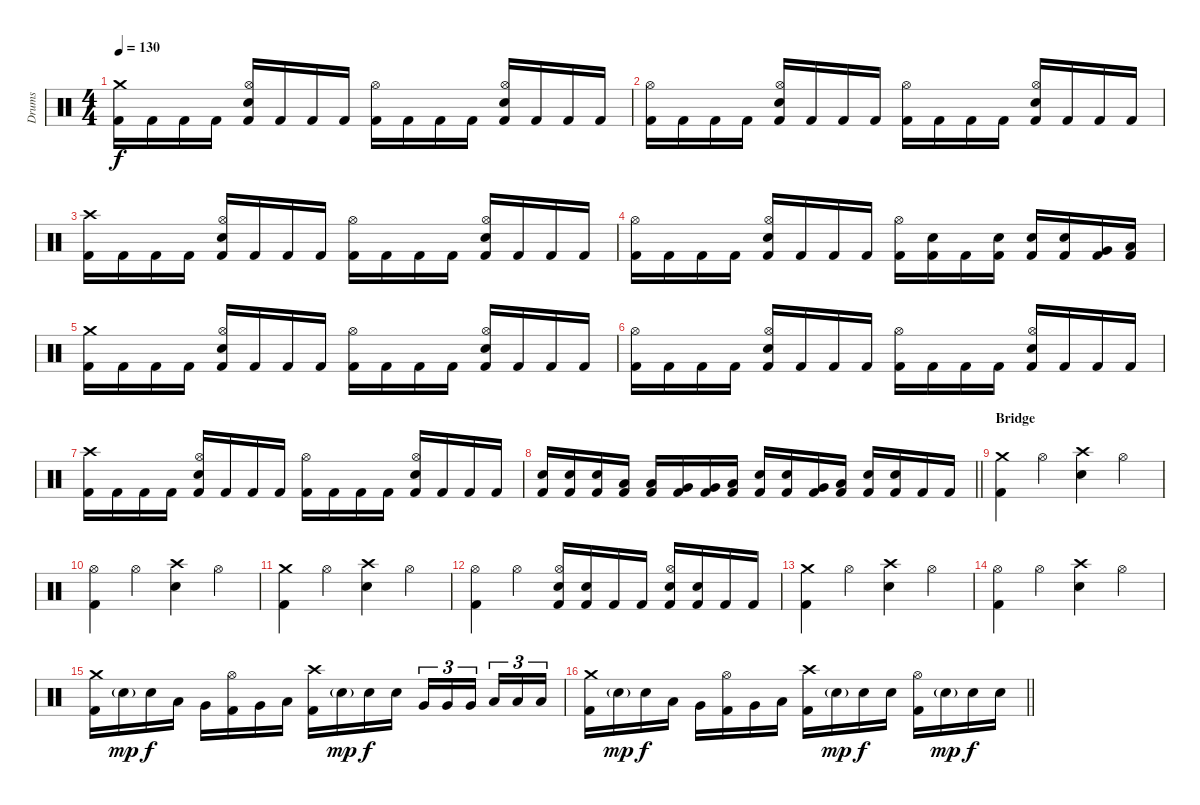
\track ("Drums" "Drums") {instrument percussion}
\staff {score}
\articulation defaults
\ts (4 4)
\tempo 130
\clef neutral
\ks c
("Crash medium (hit)" "Kick (hit) 2").16{dy f} "Kick (hit) 2".16 "Kick (hit) 2".16 "Kick (hit) 2".16 ("Hi-Hat (open)" "Electric Snare (hit)" "Kick (hit) 2").16 "Kick (hit) 2".16 "Kick (hit) 2".16 "Kick (hit) 2".16 ("Hi-Hat (open)" "Kick (hit) 2").16 "Kick (hit) 2".16 "Kick (hit) 2".16 "Kick (hit) 2".16 ("Hi-Hat (open)" "Electric Snare (hit)" "Kick (hit) 2").16 "Kick (hit) 2".16 "Kick (hit) 2".16 "Kick (hit) 2".16 |
("Hi-Hat (open)" "Kick (hit) 2").16 "Kick (hit) 2".16 "Kick (hit) 2".16 "Kick (hit) 2".16 ("Hi-Hat (open)" "Electric Snare (hit)" "Kick (hit) 2").16 "Kick (hit) 2".16 "Kick (hit) 2".16 "Kick (hit) 2".16 ("Hi-Hat (open)" "Kick (hit) 2").16 "Kick (hit) 2".16 "Kick (hit) 2".16 "Kick (hit) 2".16 ("Hi-Hat (open)" "Electric Snare (hit)" "Kick (hit) 2").16 "Kick (hit) 2".16 "Kick (hit) 2".16 "Kick (hit) 2".16 |
("Crash high (hit)" "Kick (hit) 2").16 "Kick (hit) 2".16 "Kick (hit) 2".16 "Kick (hit) 2".16 ("Hi-Hat (open)" "Electric Snare (hit)" "Kick (hit) 2").16 "Kick (hit) 2".16 "Kick (hit) 2".16 "Kick (hit) 2".16 ("Hi-Hat (open)" "Kick (hit) 2").16 "Kick (hit) 2".16 "Kick (hit) 2".16 "Kick (hit) 2".16 ("Hi-Hat (open)" "Electric Snare (hit)" "Kick (hit) 2").16 "Kick (hit) 2".16 "Kick (hit) 2".16 "Kick (hit) 2".16 |
("Hi-Hat (open)" "Kick (hit) 2").16 "Kick (hit) 2".16 "Kick (hit) 2".16 "Kick (hit) 2".16 ("Hi-Hat (open)" "Electric Snare (hit)" "Kick (hit) 2").16 "Kick (hit) 2".16 "Kick (hit) 2".16 "Kick (hit) 2".16 ("Hi-Hat (open)" "Kick (hit) 2").16 ("Electric Snare (hit)" "Kick (hit) 2").16 "Kick (hit) 2".16 ("Electric Snare (hit)" "Kick (hit) 2").16 ("Electric Snare (hit)" "Kick (hit) 2").16 ("Electric Snare (hit)" "Kick (hit) 2").16 ("Very Low Tom (hit)" "Kick (hit) 2").16 ("Low Floor Tom (hit)" "Kick (hit) 2").16 |
("Crash medium (hit)" "Kick (hit) 2").16 "Kick (hit) 2".16 "Kick (hit) 2".16 "Kick (hit) 2".16 ("Hi-Hat (open)" "Electric Snare (hit)" "Kick (hit) 2").16 "Kick (hit) 2".16 "Kick (hit) 2".16 "Kick (hit) 2".16 ("Hi-Hat (open)" "Kick (hit) 2").16 "Kick (hit) 2".16 "Kick (hit) 2".16 "Kick (hit) 2".16 ("Hi-Hat (open)" "Electric Snare (hit)" "Kick (hit) 2").16 "Kick (hit) 2".16 "Kick (hit) 2".16 "Kick (hit) 2".16 |
("Hi-Hat (open)" "Kick (hit) 2").16 "Kick (hit) 2".16 "Kick (hit) 2".16 "Kick (hit) 2".16 ("Hi-Hat (open)" "Electric Snare (hit)" "Kick (hit) 2").16 "Kick (hit) 2".16 "Kick (hit) 2".16 "Kick (hit) 2".16 ("Hi-Hat (open)" "Kick (hit) 2").16 "Kick (hit) 2".16 "Kick (hit) 2".16 "Kick (hit) 2".16 ("Hi-Hat (open)" "Electric Snare (hit)" "Kick (hit) 2").16 "Kick (hit) 2".16 "Kick (hit) 2".16 "Kick (hit) 2".16 |
("Crash high (hit)" "Kick (hit) 2").16 "Kick (hit) 2".16 "Kick (hit) 2".16 "Kick (hit) 2".16 ("Hi-Hat (open)" "Electric Snare (hit)" "Kick (hit) 2").16 "Kick (hit) 2".16 "Kick (hit) 2".16 "Kick (hit) 2".16 ("Hi-Hat (open)" "Kick (hit) 2").16 "Kick (hit) 2".16 "Kick (hit) 2".16 "Kick (hit) 2".16 ("Hi-Hat (open)" "Electric Snare (hit)" "Kick (hit) 2").16 "Kick (hit) 2".16 "Kick (hit) 2".16 "Kick (hit) 2".16 |
\barLineRight lightlight
("Electric Snare (hit)" "Kick (hit) 2").16 ("Electric Snare (hit)" "Kick (hit) 2").16 ("Electric Snare (hit)" "Kick (hit) 2").16 ("Low Tom (hit)" "Kick (hit) 2").16 ("Low Tom (hit)" "Kick (hit) 2").16 ("Very Low Tom (hit)" "Kick (hit) 2").16 ("Very Low Tom (hit)" "Kick (hit) 2").16 ("Low Floor Tom (hit)" "Kick (hit) 2").16 ("Electric Snare (hit)" "Kick (hit) 2").16 ("Electric Snare (hit)" "Kick (hit) 2").16 ("Very Low Tom (hit)" "Kick (hit) 2").16 ("Low Floor Tom (hit)" "Kick (hit) 2").16 ("Electric Snare (hit)" "Kick (hit) 2").16 ("Electric Snare (hit)" "Kick (hit) 2").16 "Kick (hit) 2".16 "Kick (hit) 2".16 |
\section ("" "Bridge")
("Crash medium (hit)" "Kick (hit) 2").4 "Hi-Hat (open)".4 ("Crash high (hit)" "Electric Snare (hit)").4 "Hi-Hat (open)".4 |
("Hi-Hat (open)" "Kick (hit) 2").4 "Hi-Hat (open)".4 ("Crash high (hit)" "Electric Snare (hit)").4 "Hi-Hat (open)".4 |
("Crash medium (hit)" "Kick (hit) 2").4 "Hi-Hat (open)".4 ("Crash high (hit)" "Electric Snare (hit)").4 "Hi-Hat (open)".4 |
("Hi-Hat (open)" "Kick (hit) 2").4 "Hi-Hat (open)".4 ("Hi-Hat (open)" "Electric Snare (hit)" "Kick (hit) 2").16 ("Electric Snare (hit)" "Kick (hit) 2").16 "Kick (hit) 2".16 "Kick (hit) 2".16 ("Hi-Hat (open)" "Electric Snare (hit)" "Kick (hit) 2").16 ("Electric Snare (hit)" "Kick (hit) 2").16 "Kick (hit) 2".16 "Kick (hit) 2".16 |
("Crash medium (hit)" "Kick (hit) 2").4 "Hi-Hat (open)".4 ("Crash high (hit)" "Electric Snare (hit)").4 "Hi-Hat (open)".4 |
("Hi-Hat (open)" "Kick (hit) 2").4 "Hi-Hat (open)".4 ("Crash high (hit)" "Electric Snare (hit)").4 "Hi-Hat (open)".4 |
("Crash medium (hit)" "Kick (hit) 2").16 "Electric Snare (hit)"{g}.16{dy mp} "Electric Snare (hit)".16{dy f} "Low Tom (hit)".16 "Very Low Tom (hit)".16 ("Hi-Hat (open)" "Kick (hit) 2").16 "Very Low Tom (hit)".16 "Low Floor Tom (hit)".16 ("Crash high (hit)" "Kick (hit) 2").16 "Electric Snare (hit)"{g}.16{dy mp} "Electric Snare (hit)".16{dy f} "Electric Snare (hit)".16 "Very Low Tom (hit)".16{tu (3 2)} "Very Low Tom (hit)".16{tu (3 2)} "Very Low Tom (hit)".16{tu (3 2) beam splitsecondary} "Low Floor Tom (hit)".16{tu (3 2)} "Low Floor Tom (hit)".16{tu (3 2)} "Low Floor Tom (hit)".16{tu (3 2)} |
\barLineRight lightlight
("Crash medium (hit)" "Kick (hit) 2").16 "Electric Snare (hit)"{g}.16{dy mp} "Electric Snare (hit)".16{dy f} "Low Tom (hit)".16 "Very Low Tom (hit)".16 ("Hi-Hat (open)" "Kick (hit) 2").16 "Very Low Tom (hit)".16 "Low Floor Tom (hit)".16 ("Crash high (hit)" "Kick (hit) 2").16 "Electric Snare (hit)"{g}.16{dy mp} "Electric Snare (hit)".16{dy f} "Electric Snare (hit)".16 ("Hi-Hat (open)" "Kick (hit) 2").16 "Electric Snare (hit)"{g}.16{dy mp} "Electric Snare (hit)".16{dy f} "Electric Snare (hit)".16
